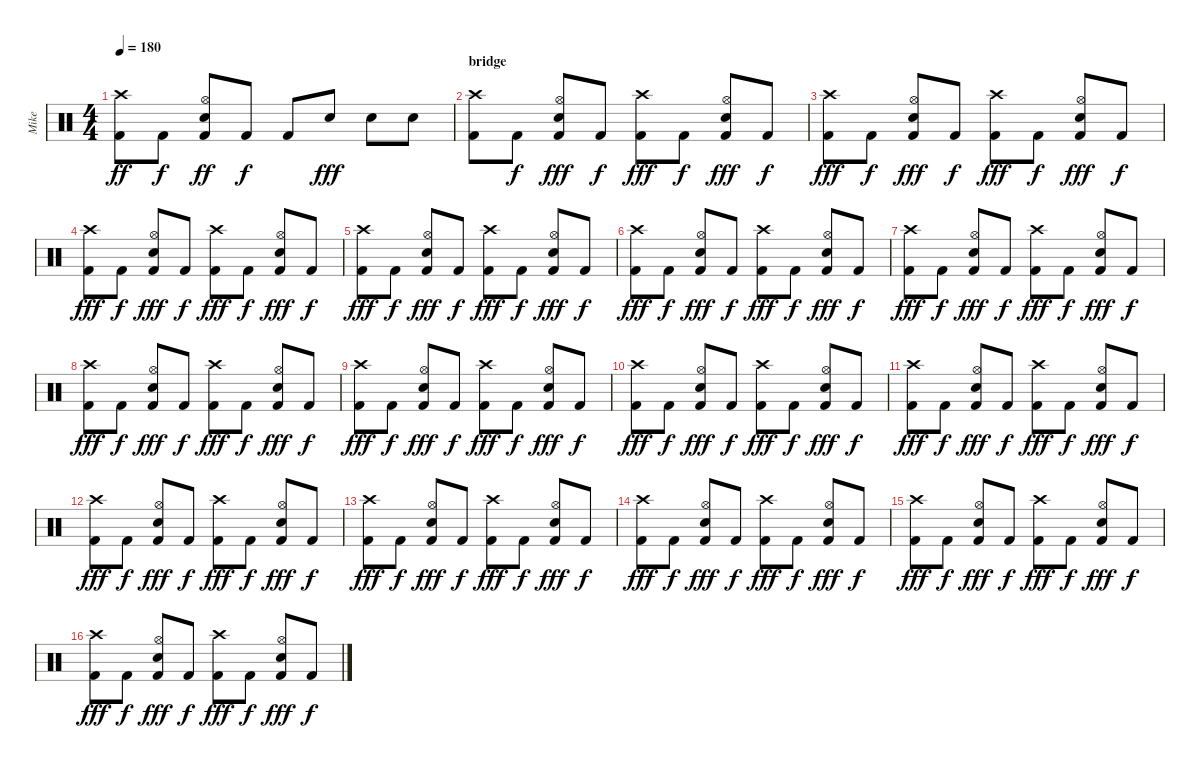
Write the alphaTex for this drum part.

\track ("Mike" "Mike") {instrument percussion}
\staff {score}
\articulation defaults
\ts (4 4)
\tempo 180
\clef neutral
\ks c
("Crash high (hit)" "Kick (hit) 2").8{dy ff} "Kick (hit) 2".8{dy f} ("Hi-Hat (open)" "Snare (hit) 2" "Kick (hit) 2").8{dy ff} "Kick (hit) 2".8{dy f} "Kick (hit) 2".8 "Snare (hit) 2".8{dy fff} "Snare (hit) 2".8 "Snare (hit) 2".8 |
\section ("" "bridge")
("Crash high (hit)" "Kick (hit) 2").8 "Kick (hit) 2".8{dy f} ("Hi-Hat (open)" "Snare (hit) 2" "Kick (hit) 2").8{dy fff} "Kick (hit) 2".8{dy f} ("Crash high (hit)" "Kick (hit) 2").8{dy fff} "Kick (hit) 2".8{dy f} ("Hi-Hat (open)" "Snare (hit) 2" "Kick (hit) 2").8{dy fff} "Kick (hit) 2".8{dy f} |
("Crash high (hit)" "Kick (hit) 2").8{dy fff} "Kick (hit) 2".8{dy f} ("Hi-Hat (open)" "Snare (hit) 2" "Kick (hit) 2").8{dy fff} "Kick (hit) 2".8{dy f} ("Crash high (hit)" "Kick (hit) 2").8{dy fff} "Kick (hit) 2".8{dy f} ("Hi-Hat (open)" "Snare (hit) 2" "Kick (hit) 2").8{dy fff} "Kick (hit) 2".8{dy f} |
("Crash high (hit)" "Kick (hit) 2").8{dy fff} "Kick (hit) 2".8{dy f} ("Hi-Hat (open)" "Snare (hit) 2" "Kick (hit) 2").8{dy fff} "Kick (hit) 2".8{dy f} ("Crash high (hit)" "Kick (hit) 2").8{dy fff} "Kick (hit) 2".8{dy f} ("Hi-Hat (open)" "Snare (hit) 2" "Kick (hit) 2").8{dy fff} "Kick (hit) 2".8{dy f} |
("Crash high (hit)" "Kick (hit) 2").8{dy fff} "Kick (hit) 2".8{dy f} ("Hi-Hat (open)" "Snare (hit) 2" "Kick (hit) 2").8{dy fff} "Kick (hit) 2".8{dy f} ("Crash high (hit)" "Kick (hit) 2").8{dy fff} "Kick (hit) 2".8{dy f} ("Hi-Hat (open)" "Snare (hit) 2" "Kick (hit) 2").8{dy fff} "Kick (hit) 2".8{dy f} |
("Crash high (hit)" "Kick (hit) 2").8{dy fff} "Kick (hit) 2".8{dy f} ("Hi-Hat (open)" "Snare (hit) 2" "Kick (hit) 2").8{dy fff} "Kick (hit) 2".8{dy f} ("Crash high (hit)" "Kick (hit) 2").8{dy fff} "Kick (hit) 2".8{dy f} ("Hi-Hat (open)" "Snare (hit) 2" "Kick (hit) 2").8{dy fff} "Kick (hit) 2".8{dy f} |
("Crash high (hit)" "Kick (hit) 2").8{dy fff} "Kick (hit) 2".8{dy f} ("Hi-Hat (open)" "Snare (hit) 2" "Kick (hit) 2").8{dy fff} "Kick (hit) 2".8{dy f} ("Crash high (hit)" "Kick (hit) 2").8{dy fff} "Kick (hit) 2".8{dy f} ("Hi-Hat (open)" "Snare (hit) 2" "Kick (hit) 2").8{dy fff} "Kick (hit) 2".8{dy f} |
("Crash high (hit)" "Kick (hit) 2").8{dy fff} "Kick (hit) 2".8{dy f} ("Hi-Hat (open)" "Snare (hit) 2" "Kick (hit) 2").8{dy fff} "Kick (hit) 2".8{dy f} ("Crash high (hit)" "Kick (hit) 2").8{dy fff} "Kick (hit) 2".8{dy f} ("Hi-Hat (open)" "Snare (hit) 2" "Kick (hit) 2").8{dy fff} "Kick (hit) 2".8{dy f} |
("Crash high (hit)" "Kick (hit) 2").8{dy fff} "Kick (hit) 2".8{dy f} ("Hi-Hat (open)" "Snare (hit) 2" "Kick (hit) 2").8{dy fff} "Kick (hit) 2".8{dy f} ("Crash high (hit)" "Kick (hit) 2").8{dy fff} "Kick (hit) 2".8{dy f} ("Hi-Hat (open)" "Snare (hit) 2" "Kick (hit) 2").8{dy fff} "Kick (hit) 2".8{dy f} |
("Crash high (hit)" "Kick (hit) 2").8{dy fff} "Kick (hit) 2".8{dy f} ("Hi-Hat (open)" "Snare (hit) 2" "Kick (hit) 2").8{dy fff} "Kick (hit) 2".8{dy f} ("Crash high (hit)" "Kick (hit) 2").8{dy fff} "Kick (hit) 2".8{dy f} ("Hi-Hat (open)" "Snare (hit) 2" "Kick (hit) 2").8{dy fff} "Kick (hit) 2".8{dy f} |
("Crash high (hit)" "Kick (hit) 2").8{dy fff} "Kick (hit) 2".8{dy f} ("Hi-Hat (open)" "Snare (hit) 2" "Kick (hit) 2").8{dy fff} "Kick (hit) 2".8{dy f} ("Crash high (hit)" "Kick (hit) 2").8{dy fff} "Kick (hit) 2".8{dy f} ("Hi-Hat (open)" "Snare (hit) 2" "Kick (hit) 2").8{dy fff} "Kick (hit) 2".8{dy f} |
("Crash high (hit)" "Kick (hit) 2").8{dy fff} "Kick (hit) 2".8{dy f} ("Hi-Hat (open)" "Snare (hit) 2" "Kick (hit) 2").8{dy fff} "Kick (hit) 2".8{dy f} ("Crash high (hit)" "Kick (hit) 2").8{dy fff} "Kick (hit) 2".8{dy f} ("Hi-Hat (open)" "Snare (hit) 2" "Kick (hit) 2").8{dy fff} "Kick (hit) 2".8{dy f} |
("Crash high (hit)" "Kick (hit) 2").8{dy fff} "Kick (hit) 2".8{dy f} ("Hi-Hat (open)" "Snare (hit) 2" "Kick (hit) 2").8{dy fff} "Kick (hit) 2".8{dy f} ("Crash high (hit)" "Kick (hit) 2").8{dy fff} "Kick (hit) 2".8{dy f} ("Hi-Hat (open)" "Snare (hit) 2" "Kick (hit) 2").8{dy fff} "Kick (hit) 2".8{dy f} |
("Crash high (hit)" "Kick (hit) 2").8{dy fff} "Kick (hit) 2".8{dy f} ("Hi-Hat (open)" "Snare (hit) 2" "Kick (hit) 2").8{dy fff} "Kick (hit) 2".8{dy f} ("Crash high (hit)" "Kick (hit) 2").8{dy fff} "Kick (hit) 2".8{dy f} ("Hi-Hat (open)" "Snare (hit) 2" "Kick (hit) 2").8{dy fff} "Kick (hit) 2".8{dy f} |
("Crash high (hit)" "Kick (hit) 2").8{dy fff} "Kick (hit) 2".8{dy f} ("Hi-Hat (open)" "Snare (hit) 2" "Kick (hit) 2").8{dy fff} "Kick (hit) 2".8{dy f} ("Crash high (hit)" "Kick (hit) 2").8{dy fff} "Kick (hit) 2".8{dy f} ("Hi-Hat (open)" "Snare (hit) 2" "Kick (hit) 2").8{dy fff} "Kick (hit) 2".8{dy f} |
("Crash high (hit)" "Kick (hit) 2").8{dy fff} "Kick (hit) 2".8{dy f} ("Hi-Hat (open)" "Snare (hit) 2" "Kick (hit) 2").8{dy fff} "Kick (hit) 2".8{dy f} ("Crash high (hit)" "Kick (hit) 2").8{dy fff} "Kick (hit) 2".8{dy f} ("Hi-Hat (open)" "Snare (hit) 2" "Kick (hit) 2").8{dy fff} "Kick (hit) 2".8{dy f}
